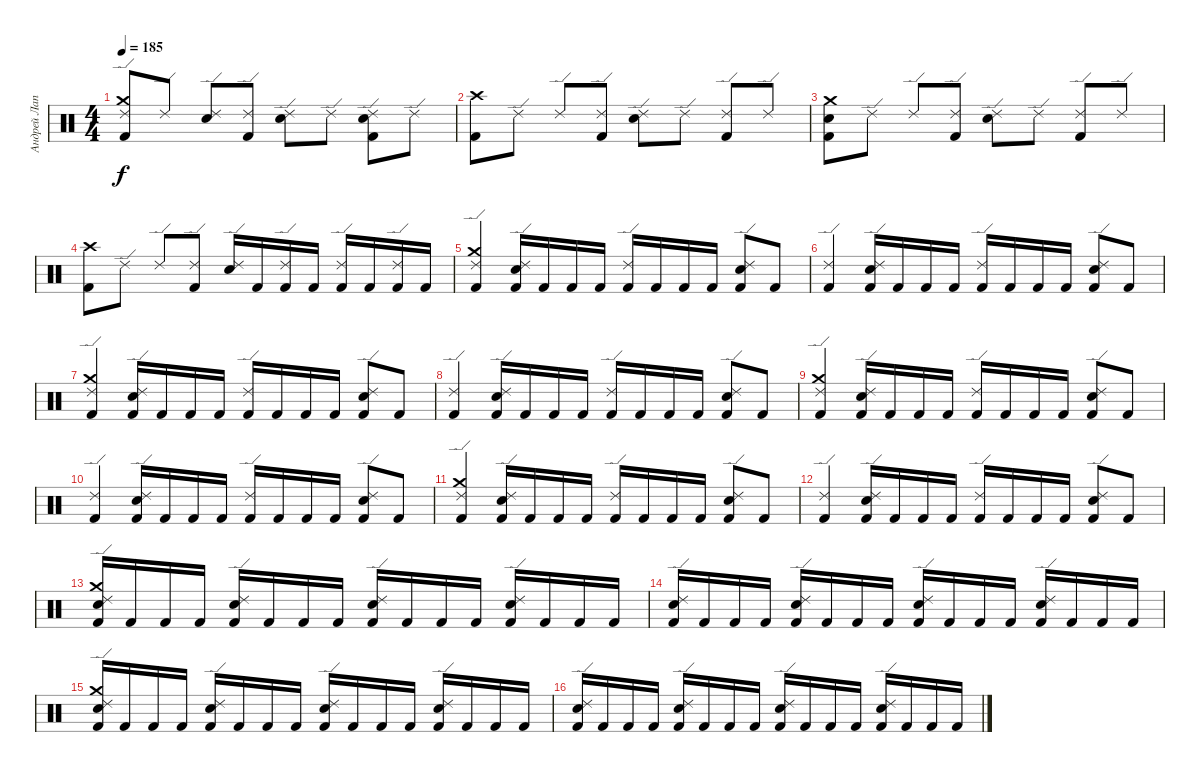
\track ("Андрей Лаптев" "Андрей Лап") {instrument percussion}
\staff {score}
\articulation defaults
\ts (4 4)
\tempo 185
\clef neutral
\ks c
("Ride (edge) 2" "Crash medium (hit)" "Kick (hit) 2").8{dy f} "Ride (edge) 2".8 ("Ride (edge) 2" "Electric Snare (hit)").8 ("Ride (edge) 2" "Kick (hit) 2").8 ("Ride (edge) 2" "Electric Snare (hit)").8 "Ride (edge) 2".8 ("Ride (edge) 2" "Kick (hit) 2" "Electric Snare (hit)").8 "Ride (edge) 2".8 |
("Kick (hit) 2" "Crash high (hit)").8 "Ride (edge) 2".8 "Ride (edge) 2".8 ("Ride (edge) 2" "Kick (hit) 2").8 ("Ride (edge) 2" "Electric Snare (hit)").8 "Ride (edge) 2".8 ("Ride (edge) 2" "Kick (hit) 2").8 "Ride (edge) 2".8 |
("Electric Snare (hit)" "Crash medium (hit)" "Kick (hit) 2").8 "Ride (edge) 2".8 "Ride (edge) 2".8 ("Ride (edge) 2" "Kick (hit) 2").8 ("Ride (edge) 2" "Electric Snare (hit)").8 "Ride (edge) 2".8 ("Ride (edge) 2" "Kick (hit) 2").8 "Ride (edge) 2".8 |
("Kick (hit) 2" "Crash high (hit)").8 "Ride (edge) 2".8 "Ride (edge) 2".8 ("Ride (edge) 2" "Kick (hit) 2").8 ("Ride (edge) 2" "Electric Snare (hit)").16 "Kick (hit) 2".16 ("Ride (edge) 2" "Kick (hit) 2").16 "Kick (hit) 2".16 ("Ride (edge) 2" "Kick (hit) 2").16 "Kick (hit) 2".16 ("Ride (edge) 2" "Kick (hit) 2").16 "Kick (hit) 2".16 |
("Crash medium (hit)" "Ride (edge) 2" "Kick (hit) 2").4 ("Kick (hit) 2" "Electric Snare (hit)" "Ride (edge) 2").16 "Kick (hit) 2".16 "Kick (hit) 2".16 "Kick (hit) 2".16 ("Kick (hit) 2" "Ride (edge) 2").16 "Kick (hit) 2".16 "Kick (hit) 2".16 "Kick (hit) 2".16 ("Kick (hit) 2" "Electric Snare (hit)" "Ride (edge) 2").8 "Kick (hit) 2".8 |
("Ride (edge) 2" "Kick (hit) 2").4 ("Kick (hit) 2" "Electric Snare (hit)" "Ride (edge) 2").16 "Kick (hit) 2".16 "Kick (hit) 2".16 "Kick (hit) 2".16 ("Kick (hit) 2" "Ride (edge) 2").16 "Kick (hit) 2".16 "Kick (hit) 2".16 "Kick (hit) 2".16 ("Kick (hit) 2" "Electric Snare (hit)" "Ride (edge) 2").8 "Kick (hit) 2".8 |
("Crash medium (hit)" "Ride (edge) 2" "Kick (hit) 2").4 ("Kick (hit) 2" "Electric Snare (hit)" "Ride (edge) 2").16 "Kick (hit) 2".16 "Kick (hit) 2".16 "Kick (hit) 2".16 ("Kick (hit) 2" "Ride (edge) 2").16 "Kick (hit) 2".16 "Kick (hit) 2".16 "Kick (hit) 2".16 ("Kick (hit) 2" "Electric Snare (hit)" "Ride (edge) 2").8 "Kick (hit) 2".8 |
("Ride (edge) 2" "Kick (hit) 2").4 ("Kick (hit) 2" "Electric Snare (hit)" "Ride (edge) 2").16 "Kick (hit) 2".16 "Kick (hit) 2".16 "Kick (hit) 2".16 ("Kick (hit) 2" "Ride (edge) 2").16 "Kick (hit) 2".16 "Kick (hit) 2".16 "Kick (hit) 2".16 ("Kick (hit) 2" "Electric Snare (hit)" "Ride (edge) 2").8 "Kick (hit) 2".8 |
("Crash medium (hit)" "Ride (edge) 2" "Kick (hit) 2").4 ("Kick (hit) 2" "Electric Snare (hit)" "Ride (edge) 2").16 "Kick (hit) 2".16 "Kick (hit) 2".16 "Kick (hit) 2".16 ("Kick (hit) 2" "Ride (edge) 2").16 "Kick (hit) 2".16 "Kick (hit) 2".16 "Kick (hit) 2".16 ("Kick (hit) 2" "Electric Snare (hit)" "Ride (edge) 2").8 "Kick (hit) 2".8 |
("Ride (edge) 2" "Kick (hit) 2").4 ("Kick (hit) 2" "Electric Snare (hit)" "Ride (edge) 2").16 "Kick (hit) 2".16 "Kick (hit) 2".16 "Kick (hit) 2".16 ("Kick (hit) 2" "Ride (edge) 2").16 "Kick (hit) 2".16 "Kick (hit) 2".16 "Kick (hit) 2".16 ("Kick (hit) 2" "Electric Snare (hit)" "Ride (edge) 2").8 "Kick (hit) 2".8 |
("Crash medium (hit)" "Ride (edge) 2" "Kick (hit) 2").4 ("Kick (hit) 2" "Electric Snare (hit)" "Ride (edge) 2").16 "Kick (hit) 2".16 "Kick (hit) 2".16 "Kick (hit) 2".16 ("Kick (hit) 2" "Ride (edge) 2").16 "Kick (hit) 2".16 "Kick (hit) 2".16 "Kick (hit) 2".16 ("Kick (hit) 2" "Electric Snare (hit)" "Ride (edge) 2").8 "Kick (hit) 2".8 |
("Ride (edge) 2" "Kick (hit) 2").4 ("Kick (hit) 2" "Electric Snare (hit)" "Ride (edge) 2").16 "Kick (hit) 2".16 "Kick (hit) 2".16 "Kick (hit) 2".16 ("Kick (hit) 2" "Ride (edge) 2").16 "Kick (hit) 2".16 "Kick (hit) 2".16 "Kick (hit) 2".16 ("Kick (hit) 2" "Electric Snare (hit)" "Ride (edge) 2").8 "Kick (hit) 2".8 |
("Crash medium (hit)" "Ride (edge) 2" "Kick (hit) 2" "Electric Snare (hit)").16 "Kick (hit) 2".16 "Kick (hit) 2".16 "Kick (hit) 2".16 ("Kick (hit) 2" "Electric Snare (hit)" "Ride (edge) 2").16 "Kick (hit) 2".16 "Kick (hit) 2".16 "Kick (hit) 2".16 ("Kick (hit) 2" "Electric Snare (hit)" "Ride (edge) 2").16 "Kick (hit) 2".16 "Kick (hit) 2".16 "Kick (hit) 2".16 ("Kick (hit) 2" "Electric Snare (hit)" "Ride (edge) 2").16 "Kick (hit) 2".16 "Kick (hit) 2".16 "Kick (hit) 2".16 |
("Electric Snare (hit)" "Ride (edge) 2" "Kick (hit) 2").16 "Kick (hit) 2".16 "Kick (hit) 2".16 "Kick (hit) 2".16 ("Kick (hit) 2" "Electric Snare (hit)" "Ride (edge) 2").16 "Kick (hit) 2".16 "Kick (hit) 2".16 "Kick (hit) 2".16 ("Kick (hit) 2" "Electric Snare (hit)" "Ride (edge) 2").16 "Kick (hit) 2".16 "Kick (hit) 2".16 "Kick (hit) 2".16 ("Kick (hit) 2" "Electric Snare (hit)" "Ride (edge) 2").16 "Kick (hit) 2".16 "Kick (hit) 2".16 "Kick (hit) 2".16 |
("Crash medium (hit)" "Ride (edge) 2" "Kick (hit) 2" "Electric Snare (hit)").16 "Kick (hit) 2".16 "Kick (hit) 2".16 "Kick (hit) 2".16 ("Kick (hit) 2" "Electric Snare (hit)" "Ride (edge) 2").16 "Kick (hit) 2".16 "Kick (hit) 2".16 "Kick (hit) 2".16 ("Kick (hit) 2" "Electric Snare (hit)" "Ride (edge) 2").16 "Kick (hit) 2".16 "Kick (hit) 2".16 "Kick (hit) 2".16 ("Kick (hit) 2" "Electric Snare (hit)" "Ride (edge) 2").16 "Kick (hit) 2".16 "Kick (hit) 2".16 "Kick (hit) 2".16 |
("Electric Snare (hit)" "Ride (edge) 2" "Kick (hit) 2").16 "Kick (hit) 2".16 "Kick (hit) 2".16 "Kick (hit) 2".16 ("Kick (hit) 2" "Electric Snare (hit)" "Ride (edge) 2").16 "Kick (hit) 2".16 "Kick (hit) 2".16 "Kick (hit) 2".16 ("Kick (hit) 2" "Electric Snare (hit)" "Ride (edge) 2").16 "Kick (hit) 2".16 "Kick (hit) 2".16 "Kick (hit) 2".16 ("Kick (hit) 2" "Electric Snare (hit)" "Ride (edge) 2").16 "Kick (hit) 2".16 "Kick (hit) 2".16 "Kick (hit) 2".16
